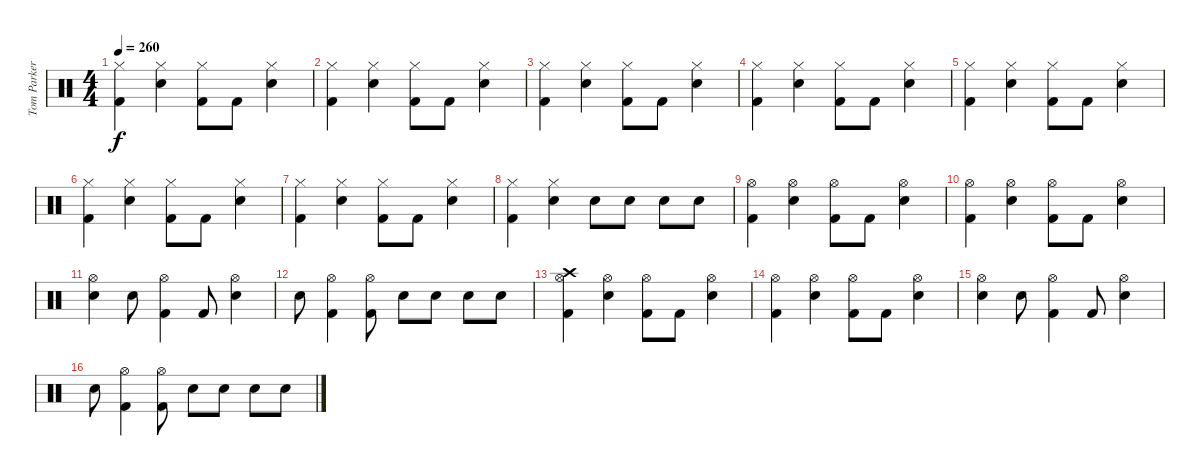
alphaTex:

\track ("Tom Parker" "Tom Parker") {instrument percussion}
\staff {score}
\articulation defaults
\ts (4 4)
\tempo 260
\clef neutral
\ks c
("Hi-Hat (closed)" "Kick (hit) 2").4{dy f} ("Hi-Hat (closed)" "Electric Snare (hit)").4 ("Hi-Hat (closed)" "Kick (hit) 2").8 "Kick (hit) 2".8 ("Hi-Hat (closed)" "Electric Snare (hit)").4 |
("Hi-Hat (closed)" "Kick (hit) 2").4 ("Hi-Hat (closed)" "Electric Snare (hit)").4 ("Hi-Hat (closed)" "Kick (hit) 2").8 "Kick (hit) 2".8 ("Hi-Hat (closed)" "Electric Snare (hit)").4 |
("Hi-Hat (closed)" "Kick (hit) 2").4 ("Hi-Hat (closed)" "Electric Snare (hit)").4 ("Hi-Hat (closed)" "Kick (hit) 2").8 "Kick (hit) 2".8 ("Hi-Hat (closed)" "Electric Snare (hit)").4 |
("Hi-Hat (closed)" "Kick (hit) 2").4 ("Hi-Hat (closed)" "Electric Snare (hit)").4 ("Hi-Hat (closed)" "Kick (hit) 2").8 "Kick (hit) 2".8 ("Hi-Hat (closed)" "Electric Snare (hit)").4 |
("Hi-Hat (closed)" "Kick (hit) 2").4 ("Hi-Hat (closed)" "Electric Snare (hit)").4 ("Hi-Hat (closed)" "Kick (hit) 2").8 "Kick (hit) 2".8 ("Hi-Hat (closed)" "Electric Snare (hit)").4 |
("Hi-Hat (closed)" "Kick (hit) 2").4 ("Hi-Hat (closed)" "Electric Snare (hit)").4 ("Hi-Hat (closed)" "Kick (hit) 2").8 "Kick (hit) 2".8 ("Hi-Hat (closed)" "Electric Snare (hit)").4 |
("Hi-Hat (closed)" "Kick (hit) 2").4 ("Hi-Hat (closed)" "Electric Snare (hit)").4 ("Hi-Hat (closed)" "Kick (hit) 2").8 "Kick (hit) 2".8 ("Hi-Hat (closed)" "Electric Snare (hit)").4 |
("Hi-Hat (closed)" "Kick (hit) 2").4 ("Hi-Hat (closed)" "Electric Snare (hit)").4 "Electric Snare (hit)".8 "Electric Snare (hit)".8 "Electric Snare (hit)".8 "Electric Snare (hit)".8 |
("Hi-Hat (open)" "Kick (hit) 2").4 ("Hi-Hat (open)" "Electric Snare (hit)").4 ("Hi-Hat (open)" "Kick (hit) 2").8 "Kick (hit) 2".8 ("Hi-Hat (open)" "Electric Snare (hit)").4 |
("Hi-Hat (open)" "Kick (hit) 2").4 ("Hi-Hat (open)" "Electric Snare (hit)").4 ("Hi-Hat (open)" "Kick (hit) 2").8 "Kick (hit) 2".8 ("Hi-Hat (open)" "Electric Snare (hit)").4 |
("Hi-Hat (open)" "Electric Snare (hit)").4 "Electric Snare (hit)".8 ("Hi-Hat (open)" "Kick (hit) 2").4 "Kick (hit) 2".8 ("Hi-Hat (open)" "Electric Snare (hit)").4 |
"Electric Snare (hit)".8 ("Hi-Hat (open)" "Kick (hit) 2").4 ("Hi-Hat (open)" "Kick (hit) 2").8 "Electric Snare (hit)".8 "Electric Snare (hit)".8 "Electric Snare (hit)".8 "Electric Snare (hit)".8 |
("Crash high (hit)" "Hi-Hat (open)" "Kick (hit) 2").4 ("Hi-Hat (open)" "Electric Snare (hit)").4 ("Hi-Hat (open)" "Kick (hit) 2").8 "Kick (hit) 2".8 ("Hi-Hat (open)" "Electric Snare (hit)").4 |
("Hi-Hat (open)" "Kick (hit) 2").4 ("Hi-Hat (open)" "Electric Snare (hit)").4 ("Hi-Hat (open)" "Kick (hit) 2").8 "Kick (hit) 2".8 ("Hi-Hat (open)" "Electric Snare (hit)").4 |
("Hi-Hat (open)" "Electric Snare (hit)").4 "Electric Snare (hit)".8 ("Hi-Hat (open)" "Kick (hit) 2").4 "Kick (hit) 2".8 ("Hi-Hat (open)" "Electric Snare (hit)").4 |
"Electric Snare (hit)".8 ("Hi-Hat (open)" "Kick (hit) 2").4 ("Hi-Hat (open)" "Kick (hit) 2").8 "Electric Snare (hit)".8 "Electric Snare (hit)".8 "Electric Snare (hit)".8 "Electric Snare (hit)".8
